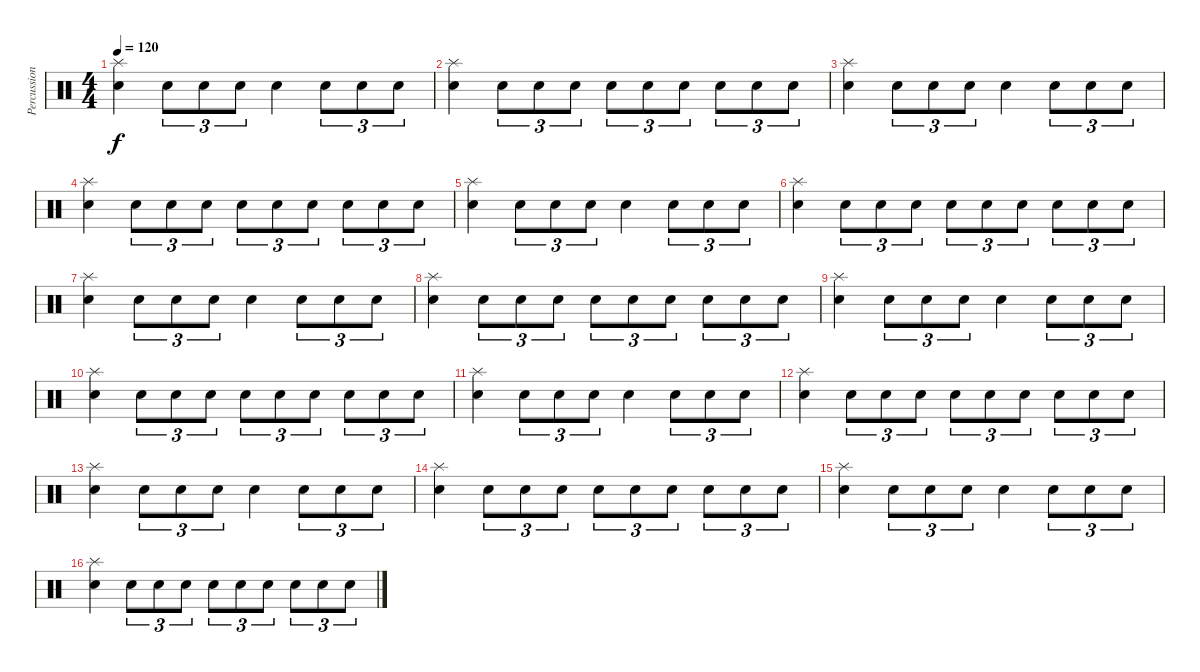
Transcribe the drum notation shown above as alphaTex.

\track ("Percussions" "Percussion") {instrument percussion}
\staff {score}
\articulation defaults
\ts (4 4)
\tempo 120
\clef neutral
\ks c
("Splash (hit)" "Snare (hit) 2").4{dy f} "Snare (hit) 2".8{tu (3 2)} "Snare (hit) 2".8{tu (3 2)} "Snare (hit) 2".8{tu (3 2)} "Snare (hit) 2".4 "Snare (hit) 2".8{tu (3 2)} "Snare (hit) 2".8{tu (3 2)} "Snare (hit) 2".8{tu (3 2)} |
("Splash (hit)" "Snare (hit) 2").4 "Snare (hit) 2".8{tu (3 2)} "Snare (hit) 2".8{tu (3 2)} "Snare (hit) 2".8{tu (3 2)} "Snare (hit) 2".8{tu (3 2)} "Snare (hit) 2".8{tu (3 2)} "Snare (hit) 2".8{tu (3 2)} "Snare (hit) 2".8{tu (3 2)} "Snare (hit) 2".8{tu (3 2)} "Snare (hit) 2".8{tu (3 2)} |
("Splash (hit)" "Snare (hit) 2").4 "Snare (hit) 2".8{tu (3 2)} "Snare (hit) 2".8{tu (3 2)} "Snare (hit) 2".8{tu (3 2)} "Snare (hit) 2".4 "Snare (hit) 2".8{tu (3 2)} "Snare (hit) 2".8{tu (3 2)} "Snare (hit) 2".8{tu (3 2)} |
("Splash (hit)" "Snare (hit) 2").4 "Snare (hit) 2".8{tu (3 2)} "Snare (hit) 2".8{tu (3 2)} "Snare (hit) 2".8{tu (3 2)} "Snare (hit) 2".8{tu (3 2)} "Snare (hit) 2".8{tu (3 2)} "Snare (hit) 2".8{tu (3 2)} "Snare (hit) 2".8{tu (3 2)} "Snare (hit) 2".8{tu (3 2)} "Snare (hit) 2".8{tu (3 2)} |
("Splash (hit)" "Snare (hit) 2").4 "Snare (hit) 2".8{tu (3 2)} "Snare (hit) 2".8{tu (3 2)} "Snare (hit) 2".8{tu (3 2)} "Snare (hit) 2".4 "Snare (hit) 2".8{tu (3 2)} "Snare (hit) 2".8{tu (3 2)} "Snare (hit) 2".8{tu (3 2)} |
("Splash (hit)" "Snare (hit) 2").4 "Snare (hit) 2".8{tu (3 2)} "Snare (hit) 2".8{tu (3 2)} "Snare (hit) 2".8{tu (3 2)} "Snare (hit) 2".8{tu (3 2)} "Snare (hit) 2".8{tu (3 2)} "Snare (hit) 2".8{tu (3 2)} "Snare (hit) 2".8{tu (3 2)} "Snare (hit) 2".8{tu (3 2)} "Snare (hit) 2".8{tu (3 2)} |
("Splash (hit)" "Snare (hit) 2").4 "Snare (hit) 2".8{tu (3 2)} "Snare (hit) 2".8{tu (3 2)} "Snare (hit) 2".8{tu (3 2)} "Snare (hit) 2".4 "Snare (hit) 2".8{tu (3 2)} "Snare (hit) 2".8{tu (3 2)} "Snare (hit) 2".8{tu (3 2)} |
("Splash (hit)" "Snare (hit) 2").4 "Snare (hit) 2".8{tu (3 2)} "Snare (hit) 2".8{tu (3 2)} "Snare (hit) 2".8{tu (3 2)} "Snare (hit) 2".8{tu (3 2)} "Snare (hit) 2".8{tu (3 2)} "Snare (hit) 2".8{tu (3 2)} "Snare (hit) 2".8{tu (3 2)} "Snare (hit) 2".8{tu (3 2)} "Snare (hit) 2".8{tu (3 2)} |
("Splash (hit)" "Snare (hit) 2").4 "Snare (hit) 2".8{tu (3 2)} "Snare (hit) 2".8{tu (3 2)} "Snare (hit) 2".8{tu (3 2)} "Snare (hit) 2".4 "Snare (hit) 2".8{tu (3 2)} "Snare (hit) 2".8{tu (3 2)} "Snare (hit) 2".8{tu (3 2)} |
("Splash (hit)" "Snare (hit) 2").4 "Snare (hit) 2".8{tu (3 2)} "Snare (hit) 2".8{tu (3 2)} "Snare (hit) 2".8{tu (3 2)} "Snare (hit) 2".8{tu (3 2)} "Snare (hit) 2".8{tu (3 2)} "Snare (hit) 2".8{tu (3 2)} "Snare (hit) 2".8{tu (3 2)} "Snare (hit) 2".8{tu (3 2)} "Snare (hit) 2".8{tu (3 2)} |
("Splash (hit)" "Snare (hit) 2").4 "Snare (hit) 2".8{tu (3 2)} "Snare (hit) 2".8{tu (3 2)} "Snare (hit) 2".8{tu (3 2)} "Snare (hit) 2".4 "Snare (hit) 2".8{tu (3 2)} "Snare (hit) 2".8{tu (3 2)} "Snare (hit) 2".8{tu (3 2)} |
("Splash (hit)" "Snare (hit) 2").4 "Snare (hit) 2".8{tu (3 2)} "Snare (hit) 2".8{tu (3 2)} "Snare (hit) 2".8{tu (3 2)} "Snare (hit) 2".8{tu (3 2)} "Snare (hit) 2".8{tu (3 2)} "Snare (hit) 2".8{tu (3 2)} "Snare (hit) 2".8{tu (3 2)} "Snare (hit) 2".8{tu (3 2)} "Snare (hit) 2".8{tu (3 2)} |
("Splash (hit)" "Snare (hit) 2").4 "Snare (hit) 2".8{tu (3 2)} "Snare (hit) 2".8{tu (3 2)} "Snare (hit) 2".8{tu (3 2)} "Snare (hit) 2".4 "Snare (hit) 2".8{tu (3 2)} "Snare (hit) 2".8{tu (3 2)} "Snare (hit) 2".8{tu (3 2)} |
("Splash (hit)" "Snare (hit) 2").4 "Snare (hit) 2".8{tu (3 2)} "Snare (hit) 2".8{tu (3 2)} "Snare (hit) 2".8{tu (3 2)} "Snare (hit) 2".8{tu (3 2)} "Snare (hit) 2".8{tu (3 2)} "Snare (hit) 2".8{tu (3 2)} "Snare (hit) 2".8{tu (3 2)} "Snare (hit) 2".8{tu (3 2)} "Snare (hit) 2".8{tu (3 2)} |
("Splash (hit)" "Snare (hit) 2").4 "Snare (hit) 2".8{tu (3 2)} "Snare (hit) 2".8{tu (3 2)} "Snare (hit) 2".8{tu (3 2)} "Snare (hit) 2".4 "Snare (hit) 2".8{tu (3 2)} "Snare (hit) 2".8{tu (3 2)} "Snare (hit) 2".8{tu (3 2)} |
("Splash (hit)" "Snare (hit) 2").4 "Snare (hit) 2".8{tu (3 2)} "Snare (hit) 2".8{tu (3 2)} "Snare (hit) 2".8{tu (3 2)} "Snare (hit) 2".8{tu (3 2)} "Snare (hit) 2".8{tu (3 2)} "Snare (hit) 2".8{tu (3 2)} "Snare (hit) 2".8{tu (3 2)} "Snare (hit) 2".8{tu (3 2)} "Snare (hit) 2".8{tu (3 2)}
